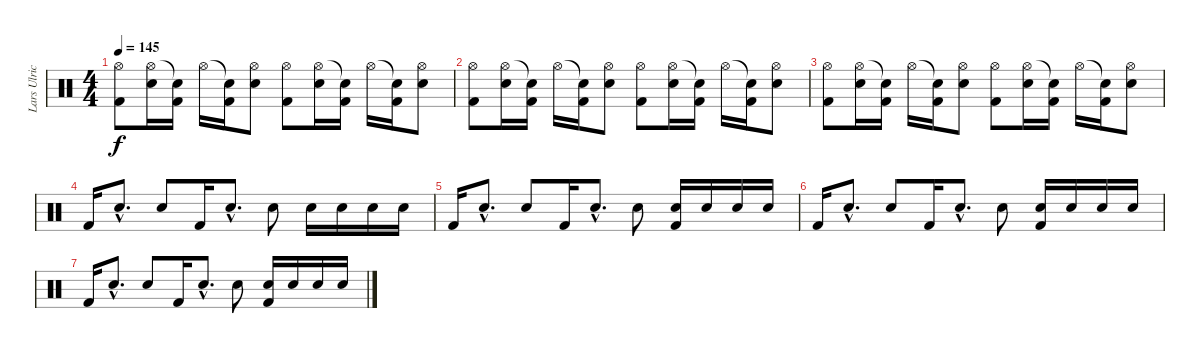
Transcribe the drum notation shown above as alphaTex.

\track ("Lars Ulrich" "Lars Ulric") {instrument percussion}
\staff {score}
\articulation defaults
\ts (4 4)
\tempo 145
\clef neutral
\ks c
("Hi-Hat (open)" "Kick (hit) 2").8{dy f} ("Hi-Hat (open)" "Electric Snare (hit)").16 ("Snare (hit)"{t} "Kick (hit) 2").16 "Hi-Hat (open)".16 ("Snare (hit)"{t} "Kick (hit) 2").16 ("Hi-Hat (open)" "Electric Snare (hit)").8 ("Hi-Hat (open)" "Kick (hit) 2").8 ("Hi-Hat (open)" "Electric Snare (hit)").16 ("Snare (hit)"{t} "Kick (hit) 2").16 "Hi-Hat (open)".16 ("Snare (hit)"{t} "Kick (hit) 2").16 ("Hi-Hat (open)" "Electric Snare (hit)").8 |
("Hi-Hat (open)" "Kick (hit) 2").8 ("Hi-Hat (open)" "Electric Snare (hit)").16 ("Snare (hit)"{t} "Kick (hit) 2").16 "Hi-Hat (open)".16 ("Snare (hit)"{t} "Kick (hit) 2").16 ("Hi-Hat (open)" "Electric Snare (hit)").8 ("Hi-Hat (open)" "Kick (hit) 2").8 ("Hi-Hat (open)" "Electric Snare (hit)").16 ("Snare (hit)"{t} "Kick (hit) 2").16 "Hi-Hat (open)".16 ("Snare (hit)"{t} "Kick (hit) 2").16 ("Hi-Hat (open)" "Electric Snare (hit)").8 |
("Hi-Hat (open)" "Kick (hit) 2").8 ("Hi-Hat (open)" "Electric Snare (hit)").16 ("Snare (hit)"{t} "Kick (hit) 2").16 "Hi-Hat (open)".16 ("Snare (hit)"{t} "Kick (hit) 2").16 ("Hi-Hat (open)" "Electric Snare (hit)").8 ("Hi-Hat (open)" "Kick (hit) 2").8 ("Hi-Hat (open)" "Electric Snare (hit)").16 ("Snare (hit)"{t} "Kick (hit) 2").16 "Hi-Hat (open)".16 ("Snare (hit)"{t} "Kick (hit) 2").16 ("Hi-Hat (open)" "Electric Snare (hit)").8 |
"Kick (hit) 2".16 "Electric Snare (hit)"{hac}.8{d} "Electric Snare (hit)".8 "Kick (hit) 2".16 "Electric Snare (hit)"{hac}.8{d} "Electric Snare (hit)".8 "Electric Snare (hit)".16 "Electric Snare (hit)".16 "Electric Snare (hit)".16 "Electric Snare (hit)".16 |
"Kick (hit) 2".16 "Electric Snare (hit)"{hac}.8{d} "Electric Snare (hit)".8 "Kick (hit) 2".16 "Electric Snare (hit)"{hac}.8{d} "Electric Snare (hit)".8 ("Electric Snare (hit)" "Kick (hit) 2").16 "Electric Snare (hit)".16 "Electric Snare (hit)".16 "Electric Snare (hit)".16 |
"Kick (hit) 2".16 "Electric Snare (hit)"{hac}.8{d} "Electric Snare (hit)".8 "Kick (hit) 2".16 "Electric Snare (hit)"{hac}.8{d} "Electric Snare (hit)".8 ("Electric Snare (hit)" "Kick (hit) 2").16 "Electric Snare (hit)".16 "Electric Snare (hit)".16 "Electric Snare (hit)".16 |
"Kick (hit) 2".16 "Electric Snare (hit)"{hac}.8{d} "Electric Snare (hit)".8 "Kick (hit) 2".16 "Electric Snare (hit)"{hac}.8{d} "Electric Snare (hit)".8 ("Electric Snare (hit)" "Kick (hit) 2").16 "Electric Snare (hit)".16 "Electric Snare (hit)".16 "Electric Snare (hit)".16
